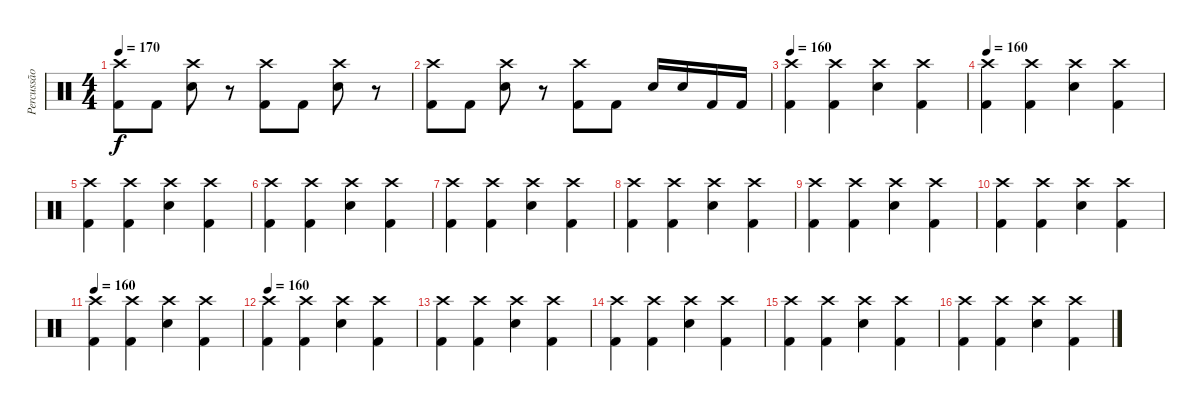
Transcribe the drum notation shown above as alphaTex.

\track ("Percussão" "Percussão") {instrument percussion}
\staff {score}
\articulation defaults
\ts (4 4)
\tempo 170
\clef neutral
\ks c
("Crash high (hit)" "Kick (hit) 2").8{dy f} "Kick (hit) 2".8 ("Crash high (hit)" "Electric Snare (hit)").8 r.8 ("Crash high (hit)" "Kick (hit) 2").8 "Kick (hit) 2".8 ("Crash high (hit)" "Electric Snare (hit)").8 r.8 |
("Crash high (hit)" "Kick (hit) 2").8 "Kick (hit) 2".8 ("Crash high (hit)" "Electric Snare (hit)").8 r.8 ("Crash high (hit)" "Kick (hit) 2").8 "Kick (hit) 2".8 "Electric Snare (hit)".16 "Electric Snare (hit)".16 "Kick (hit) 2".16 "Kick (hit) 2".16 |
\tempo 160
("Crash high (hit)" "Kick (hit) 2").4 ("Crash high (hit)" "Kick (hit) 2").4 ("Crash high (hit)" "Electric Snare (hit)").4 ("Crash high (hit)" "Kick (hit) 2").4 |
\tempo 160
("Crash high (hit)" "Kick (hit) 2").4 ("Crash high (hit)" "Kick (hit) 2").4 ("Crash high (hit)" "Electric Snare (hit)").4 ("Crash high (hit)" "Kick (hit) 2").4 |
("Crash high (hit)" "Kick (hit) 2").4 ("Crash high (hit)" "Kick (hit) 2").4 ("Crash high (hit)" "Electric Snare (hit)").4 ("Crash high (hit)" "Kick (hit) 2").4 |
("Crash high (hit)" "Kick (hit) 2").4 ("Crash high (hit)" "Kick (hit) 2").4 ("Crash high (hit)" "Electric Snare (hit)").4 ("Crash high (hit)" "Kick (hit) 2").4 |
("Crash high (hit)" "Kick (hit) 2").4 ("Crash high (hit)" "Kick (hit) 2").4 ("Crash high (hit)" "Electric Snare (hit)").4 ("Crash high (hit)" "Kick (hit) 2").4 |
("Crash high (hit)" "Kick (hit) 2").4 ("Crash high (hit)" "Kick (hit) 2").4 ("Crash high (hit)" "Electric Snare (hit)").4 ("Crash high (hit)" "Kick (hit) 2").4 |
("Crash high (hit)" "Kick (hit) 2").4 ("Crash high (hit)" "Kick (hit) 2").4 ("Crash high (hit)" "Electric Snare (hit)").4 ("Crash high (hit)" "Kick (hit) 2").4 |
("Crash high (hit)" "Kick (hit) 2").4 ("Crash high (hit)" "Kick (hit) 2").4 ("Crash high (hit)" "Electric Snare (hit)").4 ("Crash high (hit)" "Kick (hit) 2").4 |
\tempo 160
("Crash high (hit)" "Kick (hit) 2").4 ("Crash high (hit)" "Kick (hit) 2").4 ("Crash high (hit)" "Electric Snare (hit)").4 ("Crash high (hit)" "Kick (hit) 2").4 |
\tempo 160
("Crash high (hit)" "Kick (hit) 2").4 ("Crash high (hit)" "Kick (hit) 2").4 ("Crash high (hit)" "Electric Snare (hit)").4 ("Crash high (hit)" "Kick (hit) 2").4 |
("Crash high (hit)" "Kick (hit) 2").4 ("Crash high (hit)" "Kick (hit) 2").4 ("Crash high (hit)" "Electric Snare (hit)").4 ("Crash high (hit)" "Kick (hit) 2").4 |
("Crash high (hit)" "Kick (hit) 2").4 ("Crash high (hit)" "Kick (hit) 2").4 ("Crash high (hit)" "Electric Snare (hit)").4 ("Crash high (hit)" "Kick (hit) 2").4 |
("Crash high (hit)" "Kick (hit) 2").4 ("Crash high (hit)" "Kick (hit) 2").4 ("Crash high (hit)" "Electric Snare (hit)").4 ("Crash high (hit)" "Kick (hit) 2").4 |
("Crash high (hit)" "Kick (hit) 2").4 ("Crash high (hit)" "Kick (hit) 2").4 ("Crash high (hit)" "Electric Snare (hit)").4 ("Crash high (hit)" "Kick (hit) 2").4
